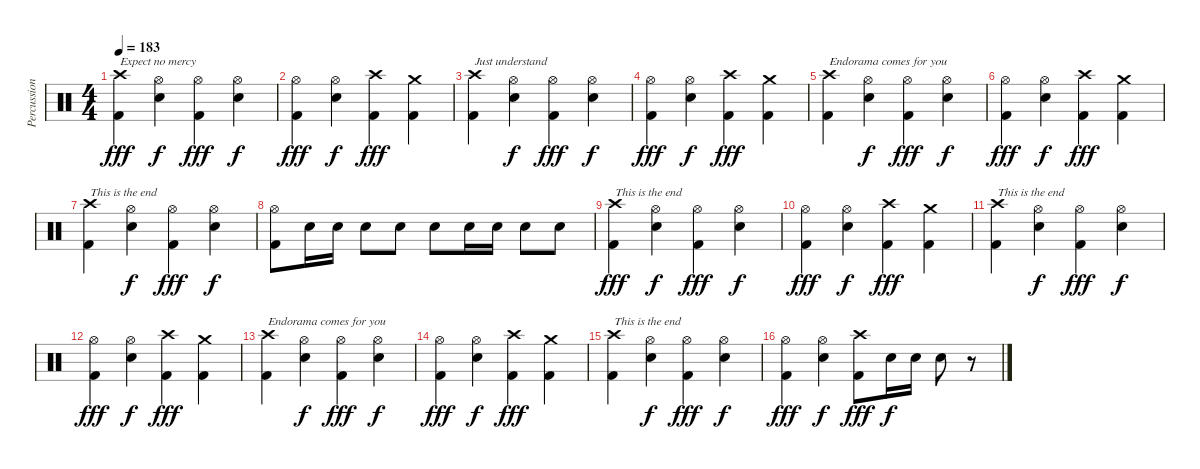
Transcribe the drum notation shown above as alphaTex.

\track ("Percussion" "Percussion") {instrument percussion}
\staff {score}
\articulation defaults
\ts (4 4)
\tempo 183
\clef neutral
\ks c
("Crash high (hit)" "Kick (hit) 2").4{txt "Expect no mercy" dy fff} ("Hi-Hat (open)" "Snare (hit) 2").4{dy f} ("Hi-Hat (open)" "Kick (hit) 2").4{dy fff} ("Hi-Hat (open)" "Snare (hit) 2").4{dy f} |
("Hi-Hat (open)" "Kick (hit) 2").4{dy fff} ("Hi-Hat (open)" "Snare (hit) 2").4{dy f} ("Crash high (hit)" "Kick (hit) 2").4{dy fff} ("Crash medium (hit)" "Kick (hit) 2").4 |
("Crash high (hit)" "Kick (hit) 2").4{txt "Just understand"} ("Hi-Hat (open)" "Snare (hit) 2").4{dy f} ("Hi-Hat (open)" "Kick (hit) 2").4{dy fff} ("Hi-Hat (open)" "Snare (hit) 2").4{dy f} |
("Hi-Hat (open)" "Kick (hit) 2").4{dy fff} ("Hi-Hat (open)" "Snare (hit) 2").4{dy f} ("Crash high (hit)" "Kick (hit) 2").4{dy fff} ("Crash medium (hit)" "Kick (hit) 2").4 |
("Crash high (hit)" "Kick (hit) 2").4{txt "Endorama comes for you"} ("Hi-Hat (open)" "Snare (hit) 2").4{dy f} ("Hi-Hat (open)" "Kick (hit) 2").4{dy fff} ("Hi-Hat (open)" "Snare (hit) 2").4{dy f} |
("Hi-Hat (open)" "Kick (hit) 2").4{dy fff} ("Hi-Hat (open)" "Snare (hit) 2").4{dy f} ("Crash high (hit)" "Kick (hit) 2").4{dy fff} ("Crash medium (hit)" "Kick (hit) 2").4 |
("Crash high (hit)" "Kick (hit) 2").4{txt "This is the end "} ("Hi-Hat (open)" "Snare (hit) 2").4{dy f} ("Hi-Hat (open)" "Kick (hit) 2").4{dy fff} ("Hi-Hat (open)" "Snare (hit) 2").4{dy f} |
("Hi-Hat (open)" "Kick (hit) 2").8 "Snare (hit) 2".16 "Snare (hit) 2".16 "Snare (hit) 2".8 "Snare (hit) 2".8 "Snare (hit) 2".8 "Snare (hit) 2".16 "Snare (hit) 2".16 "Snare (hit) 2".8 "Snare (hit) 2".8 |
("Crash high (hit)" "Kick (hit) 2").4{txt "This is the end " dy fff} ("Hi-Hat (open)" "Snare (hit) 2").4{dy f} ("Hi-Hat (open)" "Kick (hit) 2").4{dy fff} ("Hi-Hat (open)" "Snare (hit) 2").4{dy f} |
("Hi-Hat (open)" "Kick (hit) 2").4{dy fff} ("Hi-Hat (open)" "Snare (hit) 2").4{dy f} ("Crash high (hit)" "Kick (hit) 2").4{dy fff} ("Crash medium (hit)" "Kick (hit) 2").4 |
("Crash high (hit)" "Kick (hit) 2").4{txt "This is the end"} ("Hi-Hat (open)" "Snare (hit) 2").4{dy f} ("Hi-Hat (open)" "Kick (hit) 2").4{dy fff} ("Hi-Hat (open)" "Snare (hit) 2").4{dy f} |
("Hi-Hat (open)" "Kick (hit) 2").4{dy fff} ("Hi-Hat (open)" "Snare (hit) 2").4{dy f} ("Crash high (hit)" "Kick (hit) 2").4{dy fff} ("Crash medium (hit)" "Kick (hit) 2").4 |
("Crash high (hit)" "Kick (hit) 2").4{txt "Endorama comes for you"} ("Hi-Hat (open)" "Snare (hit) 2").4{dy f} ("Hi-Hat (open)" "Kick (hit) 2").4{dy fff} ("Hi-Hat (open)" "Snare (hit) 2").4{dy f} |
("Hi-Hat (open)" "Kick (hit) 2").4{dy fff} ("Hi-Hat (open)" "Snare (hit) 2").4{dy f} ("Crash high (hit)" "Kick (hit) 2").4{dy fff} ("Crash medium (hit)" "Kick (hit) 2").4 |
("Crash high (hit)" "Kick (hit) 2").4{txt "This is the end"} ("Hi-Hat (open)" "Snare (hit) 2").4{dy f} ("Hi-Hat (open)" "Kick (hit) 2").4{dy fff} ("Hi-Hat (open)" "Snare (hit) 2").4{dy f} |
("Hi-Hat (open)" "Kick (hit) 2").4{dy fff} ("Hi-Hat (open)" "Snare (hit) 2").4{dy f} ("Crash high (hit)" "Kick (hit) 2").8{dy fff} "Snare (hit) 2".16{dy f} "Snare (hit) 2".16 "Snare (hit) 2".8 r.8
